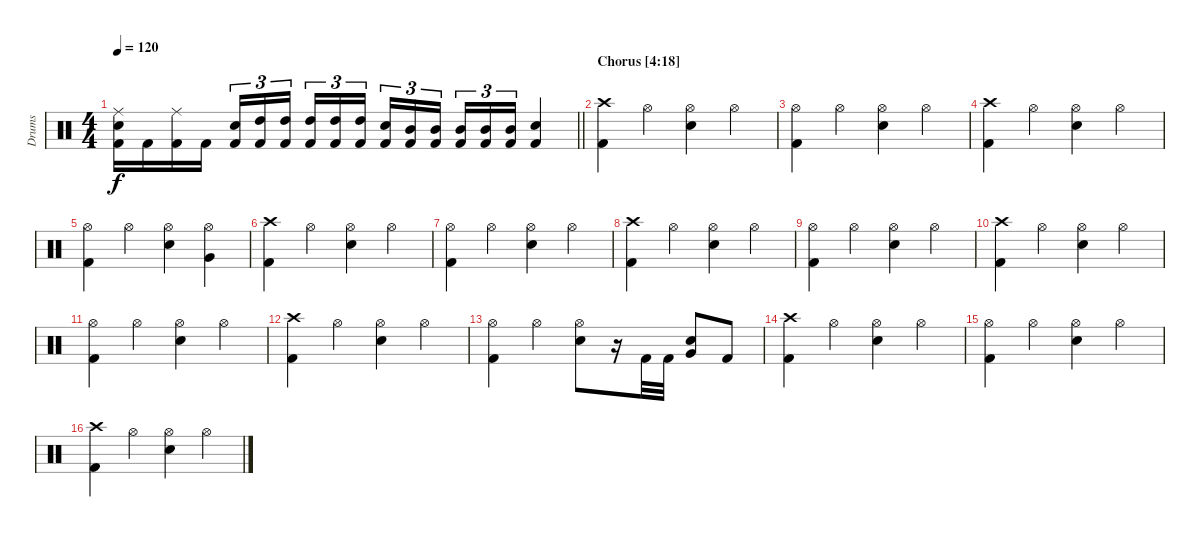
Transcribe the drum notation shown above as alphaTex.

\track ("Drums" "Drums") {instrument percussion}
\staff {score}
\articulation defaults
\ts (4 4)
\tempo 120
\clef neutral
\barLineRight lightlight
\ks c
("Ride (middle)" "Snare (hit) 2" "Kick (hit) 2").16{dy f} "Kick (hit) 2".16 ("Ride (middle)" "Kick (hit) 2").16 "Kick (hit) 2".16 ("Snare (hit) 2" "Kick (hit) 2").16{tu (3 2)} ("High Tom (hit)" "Kick (hit) 2").16{tu (3 2)} ("High Tom (hit)" "Kick (hit) 2").16{tu (3 2) beam splitsecondary} ("High Tom (hit)" "Kick (hit) 2").16{tu (3 2)} ("High Tom (hit)" "Kick (hit) 2").16{tu (3 2)} ("High Tom (hit)" "Kick (hit) 2").16{tu (3 2)} ("Snare (hit) 2" "Kick (hit) 2").16{tu (3 2)} ("Mid Tom (hit)" "Kick (hit) 2").16{tu (3 2)} ("Mid Tom (hit)" "Kick (hit) 2").16{tu (3 2) beam splitsecondary} ("Mid Tom (hit)" "Kick (hit) 2").16{tu (3 2)} ("Mid Tom (hit)" "Kick (hit) 2").16{tu (3 2)} ("Mid Tom (hit)" "Kick (hit) 2").16{tu (3 2)} ("Snare (hit) 2" "Kick (hit) 2").4 |
\section ("" "Chorus [4:18]")
("Crash high (hit)" "Kick (hit) 2").4 "Hi-Hat (open)".4 ("Hi-Hat (open)" "Snare (hit) 2").4 "Hi-Hat (open)".4 |
("Hi-Hat (open)" "Kick (hit) 2").4 "Hi-Hat (open)".4 ("Hi-Hat (open)" "Snare (hit) 2").4 "Hi-Hat (open)".4 |
("Crash high (hit)" "Kick (hit) 2").4 "Hi-Hat (open)".4 ("Hi-Hat (open)" "Snare (hit) 2").4 "Hi-Hat (open)".4 |
("Hi-Hat (open)" "Kick (hit) 2").4 "Hi-Hat (open)".4 ("Hi-Hat (open)" "Snare (hit) 2").4 ("Hi-Hat (open)" "Very Low Tom (hit)").4 |
("Crash high (hit)" "Kick (hit) 2").4 "Hi-Hat (open)".4 ("Hi-Hat (open)" "Snare (hit) 2").4 "Hi-Hat (open)".4 |
("Hi-Hat (open)" "Kick (hit) 2").4 "Hi-Hat (open)".4 ("Hi-Hat (open)" "Snare (hit) 2").4 "Hi-Hat (open)".4 |
("Crash high (hit)" "Kick (hit) 2").4 "Hi-Hat (open)".4 ("Hi-Hat (open)" "Snare (hit) 2").4 "Hi-Hat (open)".4 |
("Hi-Hat (open)" "Kick (hit) 2").4 "Hi-Hat (open)".4 ("Hi-Hat (open)" "Snare (hit) 2").4 "Hi-Hat (open)".4 |
("Crash high (hit)" "Kick (hit) 2").4 "Hi-Hat (open)".4 ("Hi-Hat (open)" "Snare (hit) 2").4 "Hi-Hat (open)".4 |
("Hi-Hat (open)" "Kick (hit) 2").4 "Hi-Hat (open)".4 ("Hi-Hat (open)" "Snare (hit) 2").4 "Hi-Hat (open)".4 |
("Crash high (hit)" "Kick (hit) 2").4 "Hi-Hat (open)".4 ("Hi-Hat (open)" "Snare (hit) 2").4 "Hi-Hat (open)".4 |
("Hi-Hat (open)" "Kick (hit) 2").4 "Hi-Hat (open)".4 ("Hi-Hat (open)" "Snare (hit) 2").8 r.16 "Kick (hit) 2".32 "Kick (hit) 2".32 ("Very Low Tom (hit)" "Snare (hit) 2").8 "Kick (hit) 2".8 |
("Crash high (hit)" "Kick (hit) 2").4 "Hi-Hat (open)".4 ("Hi-Hat (open)" "Snare (hit) 2").4 "Hi-Hat (open)".4 |
("Hi-Hat (open)" "Kick (hit) 2").4 "Hi-Hat (open)".4 ("Hi-Hat (open)" "Snare (hit) 2").4 "Hi-Hat (open)".4 |
("Crash high (hit)" "Kick (hit) 2").4 "Hi-Hat (open)".4 ("Hi-Hat (open)" "Snare (hit) 2").4 "Hi-Hat (open)".4
